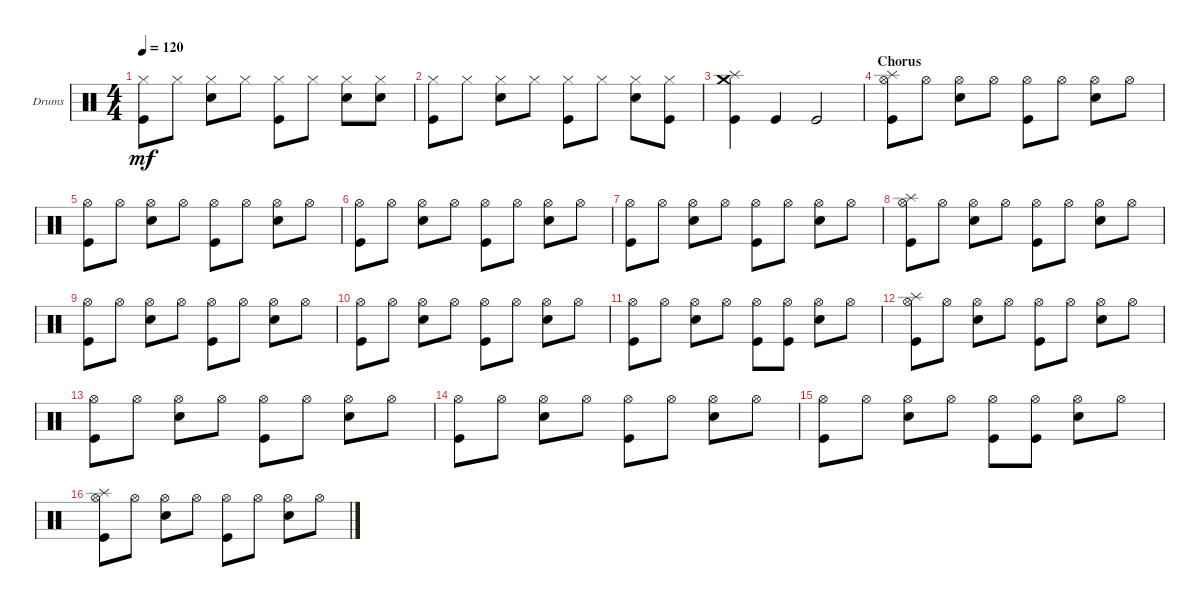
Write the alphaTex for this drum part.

\defaultSystemsLayout 4
\bracketExtendMode groupsimilarinstruments
\firstSystemTrackNameOrientation horizontal
\otherSystemsTrackNameOrientation horizontal
\track ("Drumkit" "Drums") {instrument percussion}
\staff {score}
\articulation defaults
\ts (4 4)
\tempo 120
\clef neutral
\ks c
("Kick (hit)" "Hi-Hat (closed)").8{dy mf} "Hi-Hat (closed)".8 ("Hi-Hat (closed)" "Snare (hit) 2").8 "Hi-Hat (closed)".8 ("Hi-Hat (closed)" "Kick (hit)").8 "Hi-Hat (closed)".8 ("Hi-Hat (closed)" "Snare (hit) 2").8 ("Hi-Hat (closed)" "Snare (hit) 2").8 |
("Hi-Hat (closed)" "Kick (hit)").8 "Hi-Hat (closed)".8 ("Hi-Hat (closed)" "Snare (hit) 2").8 "Hi-Hat (closed)".8 ("Hi-Hat (closed)" "Kick (hit)").8 "Hi-Hat (closed)".8 ("Hi-Hat (closed)" "Snare (hit) 2").8 ("Hi-Hat (closed)" "Kick (hit)").8 |
("Splash (hit)" "Crash medium (hit)" "Kick (hit)").4 "Kick (hit)".4 "Kick (hit)".2 |
\section ("" "Chorus")
("Kick (hit)" "Hi-Hat (open)" "Splash (hit)").8 "Hi-Hat (open)".8 ("Hi-Hat (open)" "Snare (hit) 2").8 "Hi-Hat (open)".8 ("Hi-Hat (open)" "Kick (hit)").8 "Hi-Hat (open)".8 ("Hi-Hat (open)" "Snare (hit) 2").8 "Hi-Hat (open)".8 |
("Kick (hit)" "Hi-Hat (open)").8 "Hi-Hat (open)".8 ("Hi-Hat (open)" "Snare (hit) 2").8 "Hi-Hat (open)".8 ("Hi-Hat (open)" "Kick (hit)").8 "Hi-Hat (open)".8 ("Hi-Hat (open)" "Snare (hit) 2").8 "Hi-Hat (open)".8 |
("Kick (hit)" "Hi-Hat (open)").8 "Hi-Hat (open)".8 ("Hi-Hat (open)" "Snare (hit) 2").8 "Hi-Hat (open)".8 ("Hi-Hat (open)" "Kick (hit)").8 "Hi-Hat (open)".8 ("Hi-Hat (open)" "Snare (hit) 2").8 "Hi-Hat (open)".8 |
("Kick (hit)" "Hi-Hat (open)").8 "Hi-Hat (open)".8 ("Hi-Hat (open)" "Snare (hit) 2").8 "Hi-Hat (open)".8 ("Hi-Hat (open)" "Kick (hit)").8 "Hi-Hat (open)".8 ("Hi-Hat (open)" "Snare (hit) 2").8 "Hi-Hat (open)".8 |
("Kick (hit)" "Hi-Hat (open)" "Splash (hit)").8 "Hi-Hat (open)".8 ("Hi-Hat (open)" "Snare (hit) 2").8 "Hi-Hat (open)".8 ("Hi-Hat (open)" "Kick (hit)").8 "Hi-Hat (open)".8 ("Hi-Hat (open)" "Snare (hit) 2").8 "Hi-Hat (open)".8 |
("Kick (hit)" "Hi-Hat (open)").8 "Hi-Hat (open)".8 ("Hi-Hat (open)" "Snare (hit) 2").8 "Hi-Hat (open)".8 ("Hi-Hat (open)" "Kick (hit)").8 "Hi-Hat (open)".8 ("Hi-Hat (open)" "Snare (hit) 2").8 "Hi-Hat (open)".8 |
("Kick (hit)" "Hi-Hat (open)").8 "Hi-Hat (open)".8 ("Hi-Hat (open)" "Snare (hit) 2").8 "Hi-Hat (open)".8 ("Hi-Hat (open)" "Kick (hit)").8 "Hi-Hat (open)".8 ("Hi-Hat (open)" "Snare (hit) 2").8 "Hi-Hat (open)".8 |
("Kick (hit)" "Hi-Hat (open)").8 "Hi-Hat (open)".8 ("Hi-Hat (open)" "Snare (hit) 2").8 "Hi-Hat (open)".8 ("Hi-Hat (open)" "Kick (hit)").8 ("Hi-Hat (open)" "Kick (hit)").8 ("Hi-Hat (open)" "Snare (hit) 2").8 "Hi-Hat (open)".8 |
("Kick (hit)" "Hi-Hat (open)" "Splash (hit)").8 "Hi-Hat (open)".8 ("Hi-Hat (open)" "Snare (hit) 2").8 "Hi-Hat (open)".8 ("Hi-Hat (open)" "Kick (hit)").8 "Hi-Hat (open)".8 ("Hi-Hat (open)" "Snare (hit) 2").8 "Hi-Hat (open)".8 |
("Kick (hit)" "Hi-Hat (open)").8 "Hi-Hat (open)".8 ("Hi-Hat (open)" "Snare (hit) 2").8 "Hi-Hat (open)".8 ("Hi-Hat (open)" "Kick (hit)").8 "Hi-Hat (open)".8 ("Hi-Hat (open)" "Snare (hit) 2").8 "Hi-Hat (open)".8 |
("Kick (hit)" "Hi-Hat (open)").8 "Hi-Hat (open)".8 ("Hi-Hat (open)" "Snare (hit) 2").8 "Hi-Hat (open)".8 ("Hi-Hat (open)" "Kick (hit)").8 "Hi-Hat (open)".8 ("Hi-Hat (open)" "Snare (hit) 2").8 "Hi-Hat (open)".8 |
("Kick (hit)" "Hi-Hat (open)").8 "Hi-Hat (open)".8 ("Hi-Hat (open)" "Snare (hit) 2").8 "Hi-Hat (open)".8 ("Hi-Hat (open)" "Kick (hit)").8 ("Hi-Hat (open)" "Kick (hit)").8 ("Hi-Hat (open)" "Snare (hit) 2").8 "Hi-Hat (open)".8 |
("Kick (hit)" "Hi-Hat (open)" "Splash (hit)").8 "Hi-Hat (open)".8 ("Hi-Hat (open)" "Snare (hit) 2").8 "Hi-Hat (open)".8 ("Hi-Hat (open)" "Kick (hit)").8 "Hi-Hat (open)".8 ("Hi-Hat (open)" "Snare (hit) 2").8 "Hi-Hat (open)".8
